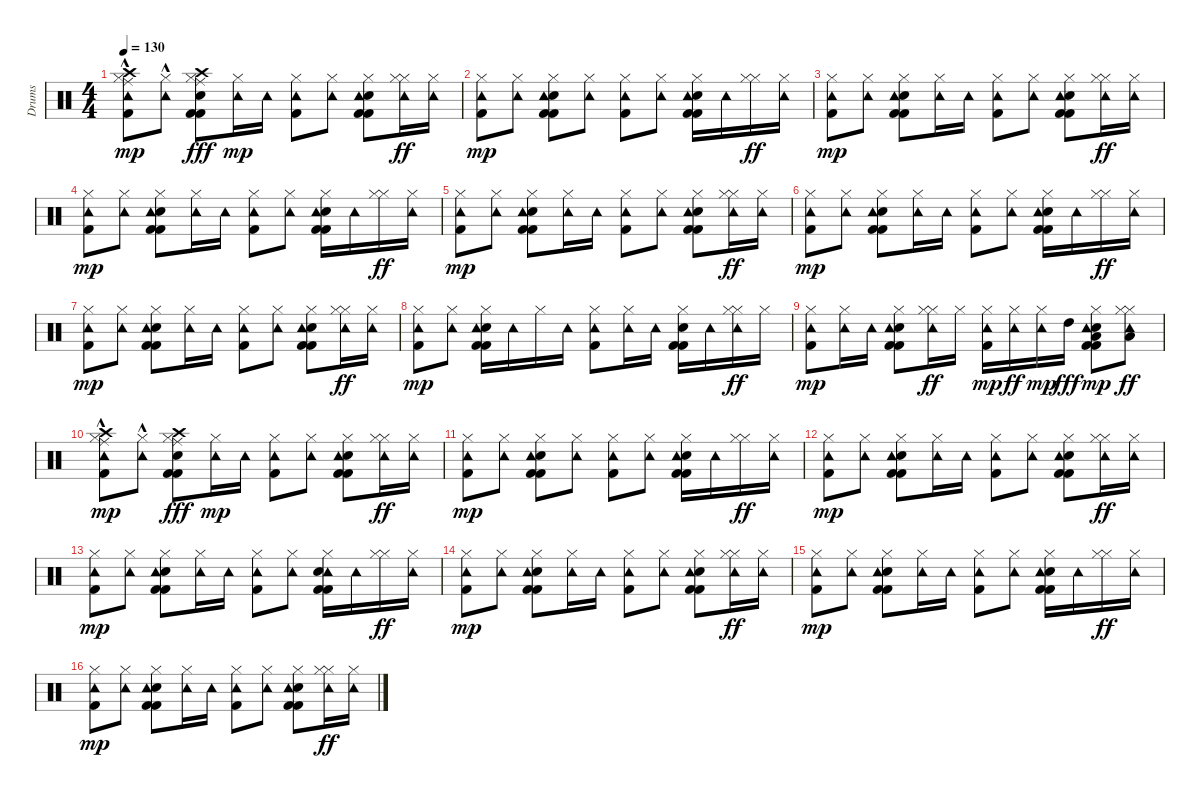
\track ("Drums" "Drums") {instrument percussion}
\staff {score}
\articulation defaults
\ts (4 4)
\tempo 130
\clef neutral
\ks c
("Kick (hit) 2" "Hi-Hat (closed)" "Ride (middle)"{hac} "Crash high (hit)"{hac} "Tambourine (hit)").8{dy mp} ("Hi-Hat (closed)" "Tambourine (hit)"{hac}).8 ("Kick (hit) 2" "Snare (hit) 2" "Kick (hit) 2" "Hi-Hat (closed)" "Ride (middle)" "Crash high (hit)").8{dy fff} ("Hi-Hat (closed)" "Tambourine (hit)").16{dy mp} "Tambourine (hit)".16 ("Kick (hit) 2" "Hi-Hat (closed)" "Tambourine (hit)").8 ("Hi-Hat (closed)" "Tambourine (hit)").8 ("Kick (hit) 2" "Snare (hit) 2" "Kick (hit) 2" "Hi-Hat (closed)" "Tambourine (hit)").8 ("Hi-Hat (closed)" "Tambourine (hit)" "Hi-Hat (closed)").16{dy ff} ("Tambourine (hit)" "Hi-Hat (closed)").16 |
("Kick (hit) 2" "Hi-Hat (closed)" "Tambourine (hit)").8{dy mp} ("Hi-Hat (closed)" "Tambourine (hit)").8 ("Kick (hit) 2" "Snare (hit) 2" "Kick (hit) 2" "Hi-Hat (closed)" "Tambourine (hit)").8 ("Hi-Hat (closed)" "Tambourine (hit)").8 ("Kick (hit) 2" "Hi-Hat (closed)" "Tambourine (hit)").8 ("Hi-Hat (closed)" "Tambourine (hit)").8 ("Kick (hit) 2" "Snare (hit) 2" "Kick (hit) 2" "Hi-Hat (closed)" "Tambourine (hit)").16 "Tambourine (hit)".16 ("Hi-Hat (closed)" "Hi-Hat (closed)").16{dy ff} ("Tambourine (hit)" "Hi-Hat (closed)").16 |
("Kick (hit) 2" "Hi-Hat (closed)" "Tambourine (hit)").8{dy mp} ("Hi-Hat (closed)" "Tambourine (hit)").8 ("Kick (hit) 2" "Snare (hit) 2" "Kick (hit) 2" "Hi-Hat (closed)" "Tambourine (hit)").8 ("Hi-Hat (closed)" "Tambourine (hit)").16 "Tambourine (hit)".16 ("Kick (hit) 2" "Hi-Hat (closed)" "Tambourine (hit)").8 ("Hi-Hat (closed)" "Tambourine (hit)").8 ("Kick (hit) 2" "Snare (hit) 2" "Kick (hit) 2" "Hi-Hat (closed)" "Tambourine (hit)").8 ("Hi-Hat (closed)" "Tambourine (hit)" "Hi-Hat (closed)").16{dy ff} ("Tambourine (hit)" "Hi-Hat (closed)").16 |
("Kick (hit) 2" "Hi-Hat (closed)" "Tambourine (hit)").8{dy mp} ("Hi-Hat (closed)" "Tambourine (hit)").8 ("Kick (hit) 2" "Snare (hit) 2" "Kick (hit) 2" "Hi-Hat (closed)" "Tambourine (hit)").8 ("Hi-Hat (closed)" "Tambourine (hit)").16 "Tambourine (hit)".16 ("Kick (hit) 2" "Hi-Hat (closed)" "Tambourine (hit)").8 ("Hi-Hat (closed)" "Tambourine (hit)").8 ("Kick (hit) 2" "Snare (hit) 2" "Kick (hit) 2" "Hi-Hat (closed)" "Tambourine (hit)").16 "Tambourine (hit)".16 ("Hi-Hat (closed)" "Hi-Hat (closed)").16{dy ff} ("Tambourine (hit)" "Hi-Hat (closed)").16 |
("Kick (hit) 2" "Hi-Hat (closed)" "Tambourine (hit)").8{dy mp} ("Hi-Hat (closed)" "Tambourine (hit)").8 ("Kick (hit) 2" "Snare (hit) 2" "Kick (hit) 2" "Hi-Hat (closed)" "Tambourine (hit)").8 ("Hi-Hat (closed)" "Tambourine (hit)").16 "Tambourine (hit)".16 ("Kick (hit) 2" "Hi-Hat (closed)" "Tambourine (hit)").8 ("Hi-Hat (closed)" "Tambourine (hit)").8 ("Kick (hit) 2" "Snare (hit) 2" "Kick (hit) 2" "Hi-Hat (closed)" "Tambourine (hit)").8 ("Hi-Hat (closed)" "Tambourine (hit)" "Hi-Hat (closed)").16{dy ff} ("Tambourine (hit)" "Hi-Hat (closed)").16 |
("Kick (hit) 2" "Hi-Hat (closed)" "Tambourine (hit)").8{dy mp} ("Hi-Hat (closed)" "Tambourine (hit)").8 ("Kick (hit) 2" "Snare (hit) 2" "Kick (hit) 2" "Hi-Hat (closed)" "Tambourine (hit)").8 ("Hi-Hat (closed)" "Tambourine (hit)").16 "Tambourine (hit)".16 ("Kick (hit) 2" "Hi-Hat (closed)" "Tambourine (hit)").8 ("Hi-Hat (closed)" "Tambourine (hit)").8 ("Kick (hit) 2" "Snare (hit) 2" "Kick (hit) 2" "Hi-Hat (closed)" "Tambourine (hit)").16 "Tambourine (hit)".16 ("Hi-Hat (closed)" "Hi-Hat (closed)").16{dy ff} ("Tambourine (hit)" "Hi-Hat (closed)").16 |
("Kick (hit) 2" "Hi-Hat (closed)" "Tambourine (hit)").8{dy mp} ("Hi-Hat (closed)" "Tambourine (hit)").8 ("Kick (hit) 2" "Kick (hit) 2" "Snare (hit) 2" "Hi-Hat (closed)" "Tambourine (hit)").8 ("Hi-Hat (closed)" "Tambourine (hit)").16 "Tambourine (hit)".16 ("Kick (hit) 2" "Hi-Hat (closed)" "Tambourine (hit)").8 ("Hi-Hat (closed)" "Tambourine (hit)").8 ("Kick (hit) 2" "Kick (hit) 2" "Snare (hit) 2" "Hi-Hat (closed)" "Tambourine (hit)").8 ("Hi-Hat (closed)" "Tambourine (hit)" "Hi-Hat (closed)").16{dy ff} ("Tambourine (hit)" "Hi-Hat (closed)").16 |
("Kick (hit) 2" "Hi-Hat (closed)" "Tambourine (hit)").8{dy mp} ("Hi-Hat (closed)" "Tambourine (hit)").8 ("Kick (hit) 2" "Kick (hit) 2" "Snare (hit) 2" "Hi-Hat (closed)" "Tambourine (hit)").16 "Tambourine (hit)".16 "Hi-Hat (closed)".16 "Tambourine (hit)".16 ("Kick (hit) 2" "Hi-Hat (closed)" "Tambourine (hit)").8 ("Hi-Hat (closed)" "Tambourine (hit)").16 "Tambourine (hit)".16 ("Kick (hit) 2" "Snare (hit) 2" "Kick (hit) 2" "Hi-Hat (closed)").16 "Tambourine (hit)".16 ("Hi-Hat (closed)" "Tambourine (hit)" "Hi-Hat (closed)").16{dy ff} "Hi-Hat (closed)".16 |
("Kick (hit) 2" "Hi-Hat (closed)" "Tambourine (hit)").8{dy mp} ("Hi-Hat (closed)" "Tambourine (hit)").16 "Tambourine (hit)".16 ("Kick (hit) 2" "Snare (hit) 2" "Kick (hit) 2" "Hi-Hat (closed)" "Tambourine (hit)").8 ("Hi-Hat (closed)" "Tambourine (hit)" "Hi-Hat (closed)").16{dy ff} "Hi-Hat (closed)".16 ("Kick (hit) 2" "Hi-Hat (closed)" "Tambourine (hit)").16{dy mp} ("Tambourine (hit)" "Hi-Hat (closed)").16{dy ff} ("Tambourine (hit)" "Hi-Hat (closed)").16{dy mp} "High Tom (hit)".16{dy fff} ("Kick (hit) 2" "Snare (hit) 2" "Kick (hit) 2" "Hi-Hat (closed)" "Low Tom (hit)" "Tambourine (hit)").8{dy mp} ("Hi-Hat (closed)" "Low Floor Tom (hit)" "Tambourine (hit)" "Hi-Hat (closed)").8{dy ff} |
("Kick (hit) 2" "Hi-Hat (closed)" "Ride (middle)"{hac} "Crash high (hit)"{hac} "Tambourine (hit)").8{dy mp} ("Hi-Hat (closed)" "Tambourine (hit)"{hac}).8 ("Kick (hit) 2" "Snare (hit) 2" "Kick (hit) 2" "Hi-Hat (closed)" "Ride (middle)" "Crash high (hit)").8{dy fff} ("Hi-Hat (closed)" "Tambourine (hit)").16{dy mp} "Tambourine (hit)".16 ("Kick (hit) 2" "Hi-Hat (closed)" "Tambourine (hit)").8 ("Tambourine (hit)" "Hi-Hat (closed)").8 ("Kick (hit) 2" "Snare (hit) 2" "Kick (hit) 2" "Hi-Hat (closed)" "Tambourine (hit)").8 ("Hi-Hat (closed)" "Tambourine (hit)" "Hi-Hat (closed)").16{dy ff} ("Tambourine (hit)" "Hi-Hat (closed)").16 |
("Kick (hit) 2" "Hi-Hat (closed)" "Tambourine (hit)").8{dy mp} ("Hi-Hat (closed)" "Tambourine (hit)").8 ("Kick (hit) 2" "Snare (hit) 2" "Kick (hit) 2" "Hi-Hat (closed)" "Tambourine (hit)").8 ("Hi-Hat (closed)" "Tambourine (hit)").8 ("Kick (hit) 2" "Hi-Hat (closed)" "Tambourine (hit)").8 ("Hi-Hat (closed)" "Tambourine (hit)").8 ("Kick (hit) 2" "Snare (hit) 2" "Kick (hit) 2" "Hi-Hat (closed)" "Tambourine (hit)").16 "Tambourine (hit)".16 ("Hi-Hat (closed)" "Hi-Hat (closed)").16{dy ff} ("Tambourine (hit)" "Hi-Hat (closed)").16 |
("Kick (hit) 2" "Hi-Hat (closed)" "Tambourine (hit)").8{dy mp} ("Hi-Hat (closed)" "Tambourine (hit)").8 ("Kick (hit) 2" "Snare (hit) 2" "Kick (hit) 2" "Hi-Hat (closed)" "Tambourine (hit)").8 ("Hi-Hat (closed)" "Tambourine (hit)").16 "Tambourine (hit)".16 ("Kick (hit) 2" "Hi-Hat (closed)" "Tambourine (hit)").8 ("Hi-Hat (closed)" "Tambourine (hit)").8 ("Kick (hit) 2" "Snare (hit) 2" "Kick (hit) 2" "Hi-Hat (closed)" "Tambourine (hit)").8 ("Hi-Hat (closed)" "Tambourine (hit)" "Hi-Hat (closed)").16{dy ff} ("Tambourine (hit)" "Hi-Hat (closed)").16 |
("Kick (hit) 2" "Hi-Hat (closed)" "Tambourine (hit)").8{dy mp} ("Hi-Hat (closed)" "Tambourine (hit)").8 ("Kick (hit) 2" "Snare (hit) 2" "Kick (hit) 2" "Hi-Hat (closed)" "Tambourine (hit)").8 ("Hi-Hat (closed)" "Tambourine (hit)").16 "Tambourine (hit)".16 ("Kick (hit) 2" "Hi-Hat (closed)" "Tambourine (hit)").8 ("Hi-Hat (closed)" "Tambourine (hit)").8 ("Tambourine (hit)" "Kick (hit) 2" "Snare (hit) 2" "Kick (hit) 2" "Hi-Hat (closed)").16 "Tambourine (hit)".16 ("Hi-Hat (closed)" "Hi-Hat (closed)").16{dy ff} ("Tambourine (hit)" "Hi-Hat (closed)").16 |
("Kick (hit) 2" "Hi-Hat (closed)" "Tambourine (hit)").8{dy mp} ("Hi-Hat (closed)" "Tambourine (hit)").8 ("Kick (hit) 2" "Snare (hit) 2" "Kick (hit) 2" "Hi-Hat (closed)" "Tambourine (hit)").8 ("Hi-Hat (closed)" "Tambourine (hit)").16 "Tambourine (hit)".16 ("Kick (hit) 2" "Hi-Hat (closed)" "Tambourine (hit)").8 ("Hi-Hat (closed)" "Tambourine (hit)").8 ("Kick (hit) 2" "Snare (hit) 2" "Kick (hit) 2" "Hi-Hat (closed)" "Tambourine (hit)").8 ("Hi-Hat (closed)" "Tambourine (hit)" "Hi-Hat (closed)").16{dy ff} ("Tambourine (hit)" "Hi-Hat (closed)").16 |
("Kick (hit) 2" "Hi-Hat (closed)" "Tambourine (hit)").8{dy mp} ("Hi-Hat (closed)" "Tambourine (hit)").8 ("Kick (hit) 2" "Snare (hit) 2" "Kick (hit) 2" "Hi-Hat (closed)" "Tambourine (hit)").8 ("Hi-Hat (closed)" "Tambourine (hit)").16 "Tambourine (hit)".16 ("Kick (hit) 2" "Hi-Hat (closed)" "Tambourine (hit)").8 ("Hi-Hat (closed)" "Tambourine (hit)").8 ("Kick (hit) 2" "Snare (hit) 2" "Kick (hit) 2" "Hi-Hat (closed)" "Tambourine (hit)").16 "Tambourine (hit)".16 ("Hi-Hat (closed)" "Hi-Hat (closed)").16{dy ff} ("Tambourine (hit)" "Hi-Hat (closed)").16 |
("Kick (hit) 2" "Hi-Hat (closed)" "Tambourine (hit)").8{dy mp} ("Hi-Hat (closed)" "Tambourine (hit)").8 ("Kick (hit) 2" "Snare (hit) 2" "Kick (hit) 2" "Hi-Hat (closed)" "Tambourine (hit)").8 ("Hi-Hat (closed)" "Tambourine (hit)").16 "Tambourine (hit)".16 ("Kick (hit) 2" "Hi-Hat (closed)" "Tambourine (hit)").8 ("Hi-Hat (closed)" "Tambourine (hit)").8 ("Kick (hit) 2" "Snare (hit) 2" "Kick (hit) 2" "Hi-Hat (closed)" "Tambourine (hit)").8 ("Hi-Hat (closed)" "Tambourine (hit)" "Hi-Hat (closed)").16{dy ff} ("Tambourine (hit)" "Hi-Hat (closed)").16
